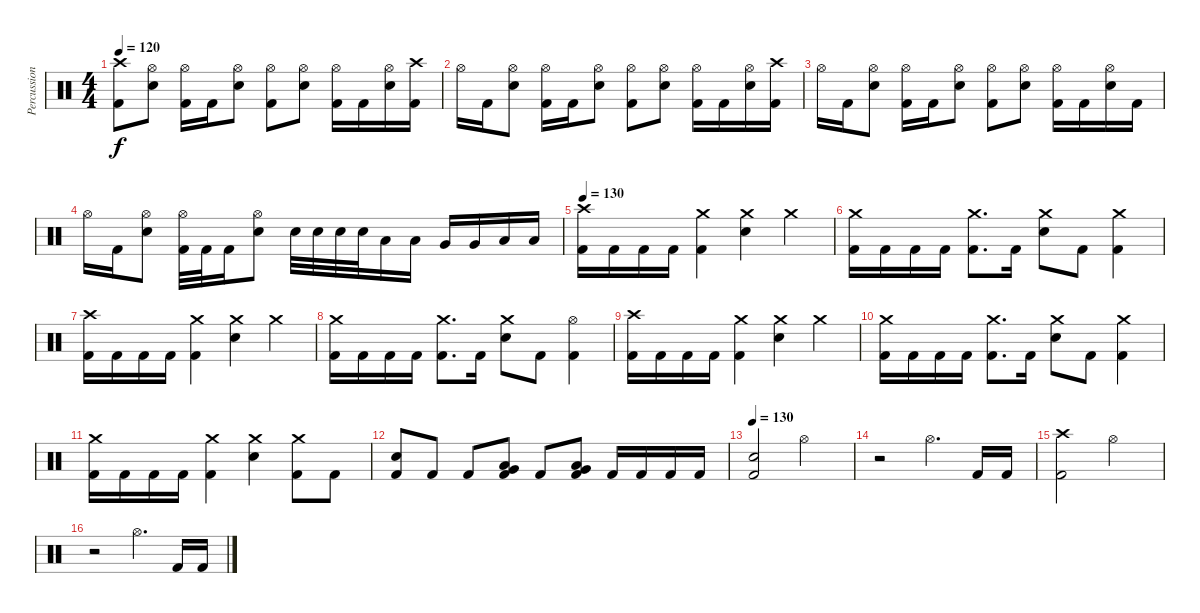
\track ("Percussion" "Percussion") {instrument percussion}
\staff {score}
\articulation defaults
\ts (4 4)
\tempo 120
\clef neutral
\ks c
("Crash high (hit)" "Kick (hit) 2").8{dy f} ("Hi-Hat (open)" "Electric Snare (hit)").8 ("Hi-Hat (open)" "Kick (hit) 2").16 "Kick (hit) 2".16 ("Hi-Hat (open)" "Electric Snare (hit)").8 ("Hi-Hat (open)" "Kick (hit) 2").8 ("Hi-Hat (open)" "Electric Snare (hit)").8 ("Hi-Hat (open)" "Kick (hit) 2").16 "Kick (hit) 2".16 ("Hi-Hat (open)" "Electric Snare (hit)").16 ("Crash high (hit)" "Kick (hit) 2").16 |
"Hi-Hat (open)".16 "Kick (hit) 2".16 ("Hi-Hat (open)" "Electric Snare (hit)").8 ("Hi-Hat (open)" "Kick (hit) 2").16 "Kick (hit) 2".16 ("Hi-Hat (open)" "Electric Snare (hit)").8 ("Hi-Hat (open)" "Kick (hit) 2").8 ("Hi-Hat (open)" "Electric Snare (hit)").8 ("Hi-Hat (open)" "Kick (hit) 2").16 "Kick (hit) 2".16 ("Hi-Hat (open)" "Electric Snare (hit)").16 ("Crash high (hit)" "Kick (hit) 2").16 |
"Hi-Hat (open)".16 "Kick (hit) 2".16 ("Hi-Hat (open)" "Electric Snare (hit)").8 ("Hi-Hat (open)" "Kick (hit) 2").16 "Kick (hit) 2".16 ("Hi-Hat (open)" "Electric Snare (hit)").8 ("Hi-Hat (open)" "Kick (hit) 2").8 ("Hi-Hat (open)" "Electric Snare (hit)").8 ("Hi-Hat (open)" "Kick (hit) 2").16 "Kick (hit) 2".16 ("Hi-Hat (open)" "Electric Snare (hit)").16 "Kick (hit) 2".16 |
"Hi-Hat (open)".16 "Kick (hit) 2".16 ("Hi-Hat (open)" "Electric Snare (hit)").8 ("Hi-Hat (open)" "Kick (hit) 2").32 "Kick (hit) 2".32 "Kick (hit) 2".16 ("Hi-Hat (open)" "Electric Snare (hit)").8 "Electric Snare (hit)".32 "Electric Snare (hit)".32 "Electric Snare (hit)".32 "Electric Snare (hit)".32 "Low Tom (hit)".16 "Low Tom (hit)".16 "Very Low Tom (hit)".16 "Very Low Tom (hit)".16 "Low Floor Tom (hit)".16 "Low Floor Tom (hit)".16 |
\tempo 130
("Crash high (hit)" "Kick (hit) 2").16 "Kick (hit) 2".16 "Kick (hit) 2".16 "Kick (hit) 2".16 ("Crash medium (hit)" "Kick (hit) 2").4 ("Crash medium (hit)" "Electric Snare (hit)").4 "Crash medium (hit)".4 |
("Crash medium (hit)" "Kick (hit) 2").16 "Kick (hit) 2".16 "Kick (hit) 2".16 "Kick (hit) 2".16 ("Crash medium (hit)" "Kick (hit) 2").8{d} "Kick (hit) 2".16 ("Crash medium (hit)" "Electric Snare (hit)").8 "Kick (hit) 2".8 ("Crash medium (hit)" "Kick (hit) 2").4 |
("Crash high (hit)" "Kick (hit) 2").16 "Kick (hit) 2".16 "Kick (hit) 2".16 "Kick (hit) 2".16 ("Crash medium (hit)" "Kick (hit) 2").4 ("Crash medium (hit)" "Electric Snare (hit)").4 "Crash medium (hit)".4 |
("Crash medium (hit)" "Kick (hit) 2").16 "Kick (hit) 2".16 "Kick (hit) 2".16 "Kick (hit) 2".16 ("Crash medium (hit)" "Kick (hit) 2").8{d} "Kick (hit) 2".16 ("Crash medium (hit)" "Electric Snare (hit)").8 "Kick (hit) 2".8 ("Hi-Hat (open)" "Kick (hit) 2").4 |
("Crash high (hit)" "Kick (hit) 2").16 "Kick (hit) 2".16 "Kick (hit) 2".16 "Kick (hit) 2".16 ("Crash medium (hit)" "Kick (hit) 2").4 ("Crash medium (hit)" "Electric Snare (hit)").4 "Crash medium (hit)".4 |
("Crash medium (hit)" "Kick (hit) 2").16 "Kick (hit) 2".16 "Kick (hit) 2".16 "Kick (hit) 2".16 ("Crash medium (hit)" "Kick (hit) 2").8{d} "Kick (hit) 2".16 ("Crash medium (hit)" "Electric Snare (hit)").8 "Kick (hit) 2".8 ("Crash medium (hit)" "Kick (hit) 2").4 |
("Crash medium (hit)" "Kick (hit) 2").16 "Kick (hit) 2".16 "Kick (hit) 2".16 "Kick (hit) 2".16 ("Crash medium (hit)" "Kick (hit) 2").4 ("Crash medium (hit)" "Electric Snare (hit)").4 ("Crash medium (hit)" "Kick (hit) 2").8 "Kick (hit) 2".8 |
("Electric Snare (hit)" "Kick (hit) 2").8 "Kick (hit) 2".8 "Kick (hit) 2".8 ("Low Tom (hit)" "Very Low Tom (hit)" "Kick (hit) 2").8 "Kick (hit) 2".8 ("Very Low Tom (hit)" "Low Floor Tom (hit)" "Kick (hit) 2").8 "Kick (hit) 2".16 "Kick (hit) 2".16 "Kick (hit) 2".16 "Kick (hit) 2".16 |
\tempo 130
("Electric Snare (hit)" "Kick (hit) 2").2 "Hi-Hat (open)".2 |
r.2 "Hi-Hat (open)".4{d} "Kick (hit) 2".16 "Kick (hit) 2".16 |
("Crash high (hit)" "Kick (hit) 2").2 "Hi-Hat (open)".2 |
r.2 "Hi-Hat (open)".4{d} "Kick (hit) 2".16 "Kick (hit) 2".16
